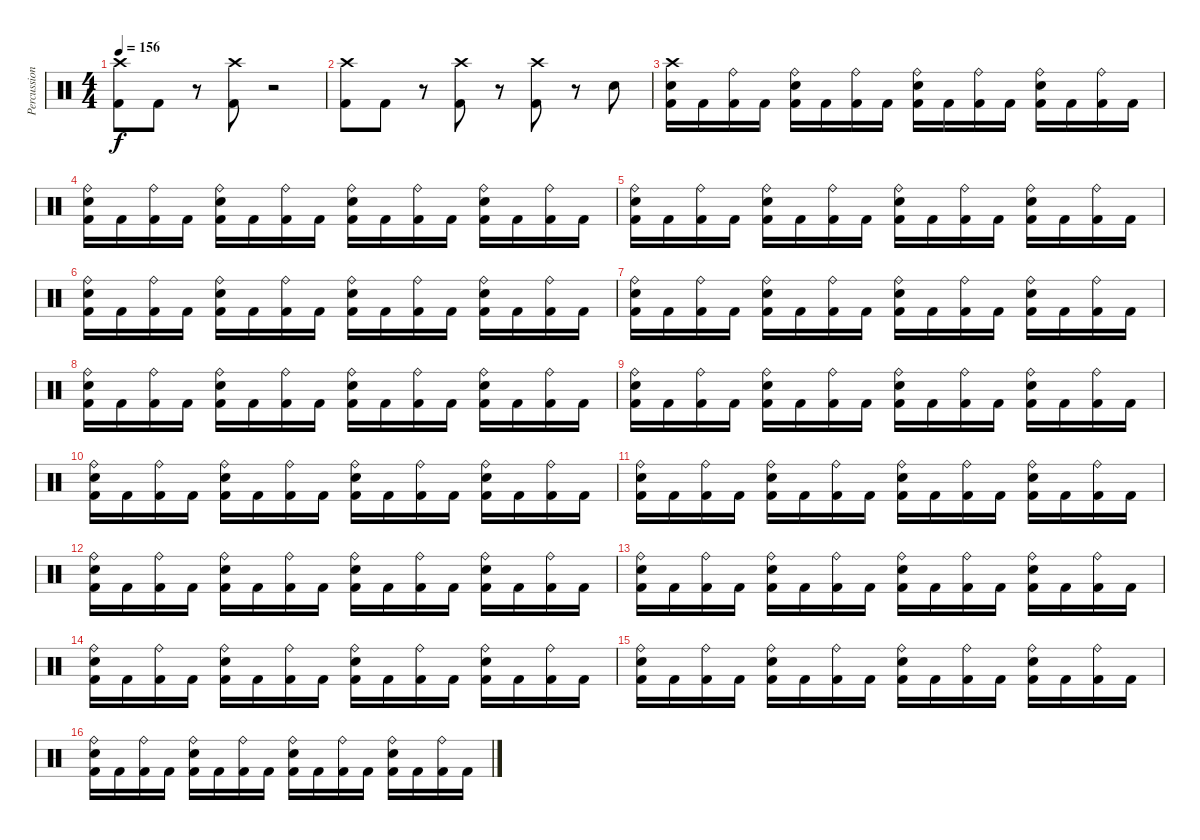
\track ("Percussion" "Percussion") {instrument percussion}
\staff {score}
\articulation defaults
\ts (4 4)
\tempo 156
\clef neutral
\ks c
("Crash high (hit)" "Kick (hit) 2").8{dy f} "Kick (hit) 2".8 r.8 ("Crash high (hit)" "Kick (hit) 2").8 r.2 |
("Crash high (hit)" "Kick (hit) 2").8 "Kick (hit) 2".8 r.8 ("Crash high (hit)" "Kick (hit) 2").8 r.8 ("Crash high (hit)" "Kick (hit) 2").8 r.8 "Snare (hit) 2".8 |
("Crash high (hit)" "Snare (hit) 2" "Kick (hit) 2").16 "Kick (hit) 2".16 ("Ride (bell)" "Kick (hit) 2").16 "Kick (hit) 2".16 ("Ride (bell)" "Snare (hit) 2" "Kick (hit) 2").16 "Kick (hit) 2".16 ("Ride (bell)" "Kick (hit) 2").16 "Kick (hit) 2".16 ("Ride (bell)" "Snare (hit) 2" "Kick (hit) 2").16 "Kick (hit) 2".16 ("Ride (bell)" "Kick (hit) 2").16 "Kick (hit) 2".16 ("Ride (bell)" "Snare (hit) 2" "Kick (hit) 2").16 "Kick (hit) 2".16 ("Ride (bell)" "Kick (hit) 2").16 "Kick (hit) 2".16 |
("Ride (bell)" "Snare (hit) 2" "Kick (hit) 2").16 "Kick (hit) 2".16 ("Ride (bell)" "Kick (hit) 2").16 "Kick (hit) 2".16 ("Ride (bell)" "Snare (hit) 2" "Kick (hit) 2").16 "Kick (hit) 2".16 ("Ride (bell)" "Kick (hit) 2").16 "Kick (hit) 2".16 ("Ride (bell)" "Snare (hit) 2" "Kick (hit) 2").16 "Kick (hit) 2".16 ("Ride (bell)" "Kick (hit) 2").16 "Kick (hit) 2".16 ("Ride (bell)" "Snare (hit) 2" "Kick (hit) 2").16 "Kick (hit) 2".16 ("Ride (bell)" "Kick (hit) 2").16 "Kick (hit) 2".16 |
("Ride (bell)" "Snare (hit) 2" "Kick (hit) 2").16 "Kick (hit) 2".16 ("Ride (bell)" "Kick (hit) 2").16 "Kick (hit) 2".16 ("Ride (bell)" "Snare (hit) 2" "Kick (hit) 2").16 "Kick (hit) 2".16 ("Ride (bell)" "Kick (hit) 2").16 "Kick (hit) 2".16 ("Ride (bell)" "Snare (hit) 2" "Kick (hit) 2").16 "Kick (hit) 2".16 ("Ride (bell)" "Kick (hit) 2").16 "Kick (hit) 2".16 ("Ride (bell)" "Snare (hit) 2" "Kick (hit) 2").16 "Kick (hit) 2".16 ("Ride (bell)" "Kick (hit) 2").16 "Kick (hit) 2".16 |
("Ride (bell)" "Snare (hit) 2" "Kick (hit) 2").16 "Kick (hit) 2".16 ("Ride (bell)" "Kick (hit) 2").16 "Kick (hit) 2".16 ("Ride (bell)" "Snare (hit) 2" "Kick (hit) 2").16 "Kick (hit) 2".16 ("Ride (bell)" "Kick (hit) 2").16 "Kick (hit) 2".16 ("Ride (bell)" "Snare (hit) 2" "Kick (hit) 2").16 "Kick (hit) 2".16 ("Ride (bell)" "Kick (hit) 2").16 "Kick (hit) 2".16 ("Ride (bell)" "Snare (hit) 2" "Kick (hit) 2").16 "Kick (hit) 2".16 ("Ride (bell)" "Kick (hit) 2").16 "Kick (hit) 2".16 |
("Ride (bell)" "Snare (hit) 2" "Kick (hit) 2").16 "Kick (hit) 2".16 ("Ride (bell)" "Kick (hit) 2").16 "Kick (hit) 2".16 ("Ride (bell)" "Snare (hit) 2" "Kick (hit) 2").16 "Kick (hit) 2".16 ("Ride (bell)" "Kick (hit) 2").16 "Kick (hit) 2".16 ("Ride (bell)" "Snare (hit) 2" "Kick (hit) 2").16 "Kick (hit) 2".16 ("Ride (bell)" "Kick (hit) 2").16 "Kick (hit) 2".16 ("Ride (bell)" "Snare (hit) 2" "Kick (hit) 2").16 "Kick (hit) 2".16 ("Ride (bell)" "Kick (hit) 2").16 "Kick (hit) 2".16 |
("Ride (bell)" "Snare (hit) 2" "Kick (hit) 2").16 "Kick (hit) 2".16 ("Ride (bell)" "Kick (hit) 2").16 "Kick (hit) 2".16 ("Ride (bell)" "Snare (hit) 2" "Kick (hit) 2").16 "Kick (hit) 2".16 ("Ride (bell)" "Kick (hit) 2").16 "Kick (hit) 2".16 ("Ride (bell)" "Snare (hit) 2" "Kick (hit) 2").16 "Kick (hit) 2".16 ("Ride (bell)" "Kick (hit) 2").16 "Kick (hit) 2".16 ("Ride (bell)" "Snare (hit) 2" "Kick (hit) 2").16 "Kick (hit) 2".16 ("Ride (bell)" "Kick (hit) 2").16 "Kick (hit) 2".16 |
("Ride (bell)" "Snare (hit) 2" "Kick (hit) 2").16 "Kick (hit) 2".16 ("Ride (bell)" "Kick (hit) 2").16 "Kick (hit) 2".16 ("Ride (bell)" "Snare (hit) 2" "Kick (hit) 2").16 "Kick (hit) 2".16 ("Ride (bell)" "Kick (hit) 2").16 "Kick (hit) 2".16 ("Ride (bell)" "Snare (hit) 2" "Kick (hit) 2").16 "Kick (hit) 2".16 ("Ride (bell)" "Kick (hit) 2").16 "Kick (hit) 2".16 ("Ride (bell)" "Snare (hit) 2" "Kick (hit) 2").16 "Kick (hit) 2".16 ("Ride (bell)" "Kick (hit) 2").16 "Kick (hit) 2".16 |
("Ride (bell)" "Snare (hit) 2" "Kick (hit) 2").16 "Kick (hit) 2".16 ("Ride (bell)" "Kick (hit) 2").16 "Kick (hit) 2".16 ("Ride (bell)" "Snare (hit) 2" "Kick (hit) 2").16 "Kick (hit) 2".16 ("Ride (bell)" "Kick (hit) 2").16 "Kick (hit) 2".16 ("Ride (bell)" "Snare (hit) 2" "Kick (hit) 2").16 "Kick (hit) 2".16 ("Ride (bell)" "Kick (hit) 2").16 "Kick (hit) 2".16 ("Ride (bell)" "Snare (hit) 2" "Kick (hit) 2").16 "Kick (hit) 2".16 ("Ride (bell)" "Kick (hit) 2").16 "Kick (hit) 2".16 |
("Ride (bell)" "Snare (hit) 2" "Kick (hit) 2").16 "Kick (hit) 2".16 ("Ride (bell)" "Kick (hit) 2").16 "Kick (hit) 2".16 ("Ride (bell)" "Snare (hit) 2" "Kick (hit) 2").16 "Kick (hit) 2".16 ("Ride (bell)" "Kick (hit) 2").16 "Kick (hit) 2".16 ("Ride (bell)" "Snare (hit) 2" "Kick (hit) 2").16 "Kick (hit) 2".16 ("Ride (bell)" "Kick (hit) 2").16 "Kick (hit) 2".16 ("Ride (bell)" "Snare (hit) 2" "Kick (hit) 2").16 "Kick (hit) 2".16 ("Ride (bell)" "Kick (hit) 2").16 "Kick (hit) 2".16 |
("Ride (bell)" "Snare (hit) 2" "Kick (hit) 2").16 "Kick (hit) 2".16 ("Ride (bell)" "Kick (hit) 2").16 "Kick (hit) 2".16 ("Ride (bell)" "Snare (hit) 2" "Kick (hit) 2").16 "Kick (hit) 2".16 ("Ride (bell)" "Kick (hit) 2").16 "Kick (hit) 2".16 ("Ride (bell)" "Snare (hit) 2" "Kick (hit) 2").16 "Kick (hit) 2".16 ("Ride (bell)" "Kick (hit) 2").16 "Kick (hit) 2".16 ("Ride (bell)" "Snare (hit) 2" "Kick (hit) 2").16 "Kick (hit) 2".16 ("Ride (bell)" "Kick (hit) 2").16 "Kick (hit) 2".16 |
("Ride (bell)" "Snare (hit) 2" "Kick (hit) 2").16 "Kick (hit) 2".16 ("Ride (bell)" "Kick (hit) 2").16 "Kick (hit) 2".16 ("Ride (bell)" "Snare (hit) 2" "Kick (hit) 2").16 "Kick (hit) 2".16 ("Ride (bell)" "Kick (hit) 2").16 "Kick (hit) 2".16 ("Ride (bell)" "Snare (hit) 2" "Kick (hit) 2").16 "Kick (hit) 2".16 ("Ride (bell)" "Kick (hit) 2").16 "Kick (hit) 2".16 ("Ride (bell)" "Snare (hit) 2" "Kick (hit) 2").16 "Kick (hit) 2".16 ("Ride (bell)" "Kick (hit) 2").16 "Kick (hit) 2".16 |
("Ride (bell)" "Snare (hit) 2" "Kick (hit) 2").16 "Kick (hit) 2".16 ("Ride (bell)" "Kick (hit) 2").16 "Kick (hit) 2".16 ("Ride (bell)" "Snare (hit) 2" "Kick (hit) 2").16 "Kick (hit) 2".16 ("Ride (bell)" "Kick (hit) 2").16 "Kick (hit) 2".16 ("Ride (bell)" "Snare (hit) 2" "Kick (hit) 2").16 "Kick (hit) 2".16 ("Ride (bell)" "Kick (hit) 2").16 "Kick (hit) 2".16 ("Ride (bell)" "Snare (hit) 2" "Kick (hit) 2").16 "Kick (hit) 2".16 ("Ride (bell)" "Kick (hit) 2").16 "Kick (hit) 2".16 |
("Ride (bell)" "Snare (hit) 2" "Kick (hit) 2").16 "Kick (hit) 2".16 ("Ride (bell)" "Kick (hit) 2").16 "Kick (hit) 2".16 ("Ride (bell)" "Snare (hit) 2" "Kick (hit) 2").16 "Kick (hit) 2".16 ("Ride (bell)" "Kick (hit) 2").16 "Kick (hit) 2".16 ("Ride (bell)" "Snare (hit) 2" "Kick (hit) 2").16 "Kick (hit) 2".16 ("Ride (bell)" "Kick (hit) 2").16 "Kick (hit) 2".16 ("Ride (bell)" "Snare (hit) 2" "Kick (hit) 2").16 "Kick (hit) 2".16 ("Ride (bell)" "Kick (hit) 2").16 "Kick (hit) 2".16 |
("Ride (bell)" "Snare (hit) 2" "Kick (hit) 2").16 "Kick (hit) 2".16 ("Ride (bell)" "Kick (hit) 2").16 "Kick (hit) 2".16 ("Ride (bell)" "Snare (hit) 2" "Kick (hit) 2").16 "Kick (hit) 2".16 ("Ride (bell)" "Kick (hit) 2").16 "Kick (hit) 2".16 ("Ride (bell)" "Snare (hit) 2" "Kick (hit) 2").16 "Kick (hit) 2".16 ("Ride (bell)" "Kick (hit) 2").16 "Kick (hit) 2".16 ("Ride (bell)" "Snare (hit) 2" "Kick (hit) 2").16 "Kick (hit) 2".16 ("Ride (bell)" "Kick (hit) 2").16 "Kick (hit) 2".16
